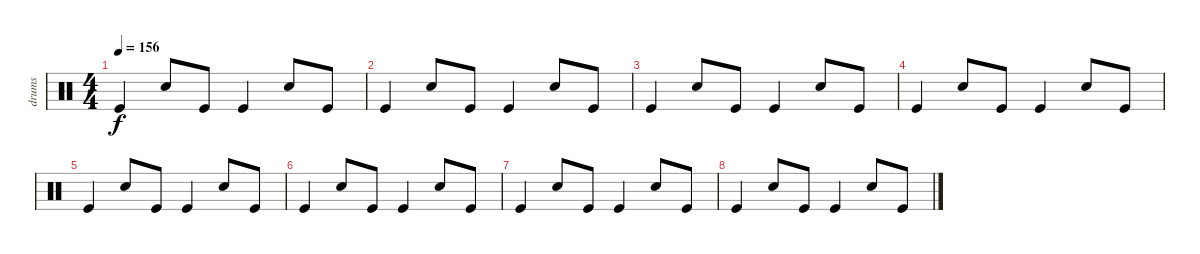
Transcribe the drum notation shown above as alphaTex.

\track ("drums" "drums") {instrument percussion}
\staff {score}
\articulation defaults
\ts (4 4)
\tempo 156
\clef neutral
\ks c "Kick (hit)".4{dy f} "Snare (hit) 2".8 "Kick (hit)".8 "Kick (hit)".4 "Snare (hit) 2".8 "Kick (hit)".8
|
"Kick (hit)".4 "Snare (hit) 2".8 "Kick (hit)".8 "Kick (hit)".4 "Snare (hit) 2".8 "Kick (hit)".8 |
"Kick (hit)".4 "Snare (hit) 2".8 "Kick (hit)".8 "Kick (hit)".4 "Snare (hit) 2".8 "Kick (hit)".8 |
"Kick (hit)".4 "Snare (hit) 2".8 "Kick (hit)".8 "Kick (hit)".4 "Electric Snare (hit)".8 "Kick (hit)".8 |
"Kick (hit)".4 "Snare (hit) 2".8 "Kick (hit)".8 "Kick (hit)".4 "Snare (hit) 2".8 "Kick (hit)".8 |
"Kick (hit)".4 "Snare (hit) 2".8 "Kick (hit)".8 "Kick (hit)".4 "Snare (hit) 2".8 "Kick (hit)".8 |
"Kick (hit)".4 "Snare (hit) 2".8 "Kick (hit)".8 "Kick (hit)".4 "Snare (hit) 2".8 "Kick (hit)".8 |
"Kick (hit)".4 "Snare (hit) 2".8 "Kick (hit)".8 "Kick (hit)".4 "Electric Snare (hit)".8 "Kick (hit)".8
